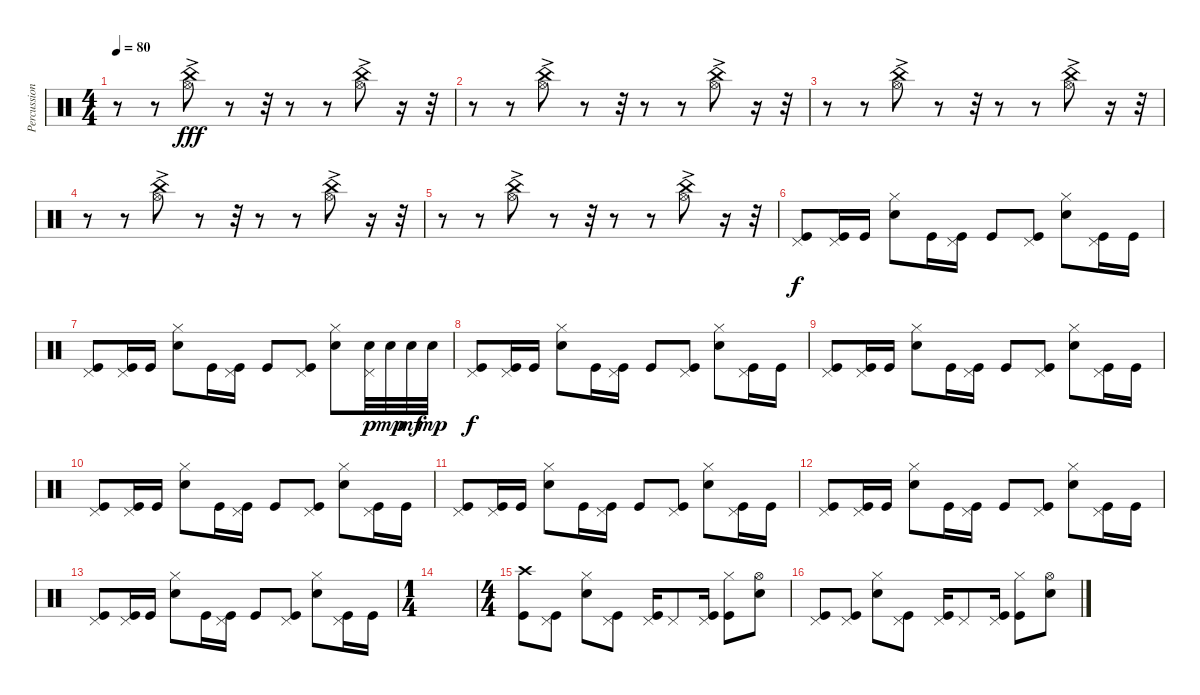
\track ("Percussions" "Percussion") {instrument percussion}
\staff {score}
\articulation defaults
\ts (4 4)
\tempo 80
\clef neutral
\ks c
r.8{dy fff} r.8 ("Hi-Hat (open)"{ac} "China (hit)"{ac}).8 r.8 r.32 r.8 r.8 ("Hi-Hat (open)"{ac} "China (hit)").8 r.16 r.32 |
r.8 r.8 ("Hi-Hat (open)"{ac} "China (hit)"{ac}).8 r.8 r.32 r.8 r.8 ("Hi-Hat (open)"{ac} "China (hit)").8 r.16 r.32 |
r.8 r.8 ("Hi-Hat (open)"{ac} "China (hit)"{ac}).8 r.8 r.32 r.8 r.8 ("Hi-Hat (open)"{ac} "China (hit)").8 r.16 r.32 |
r.8 r.8 ("Hi-Hat (open)"{ac} "China (hit)"{ac}).8 r.8 r.32 r.8 r.8 ("Hi-Hat (open)"{ac} "China (hit)").8 r.16 r.32 |
r.8 r.8 ("Hi-Hat (open)"{ac} "China (hit)"{ac}).8 r.8 r.32 r.8 r.8 ("Hi-Hat (open)"{ac} "China (hit)").8 r.16 r.32 |
("Pedal Hi-Hat (hit)" "Kick (hit)").8{dy f volume 16} ("Pedal Hi-Hat (hit)" "Kick (hit)").16 "Kick (hit)".16 ("Hi-Hat (closed)" "Electric Snare (hit)").8 "Kick (hit)".16 ("Pedal Hi-Hat (hit)" "Kick (hit)").16 "Kick (hit)".8 ("Pedal Hi-Hat (hit)" "Kick (hit)").8 ("Hi-Hat (closed)" "Electric Snare (hit)").8 ("Pedal Hi-Hat (hit)" "Kick (hit)").16 "Kick (hit)".16 |
("Pedal Hi-Hat (hit)" "Kick (hit)").8{volume 16} ("Pedal Hi-Hat (hit)" "Kick (hit)").16 "Kick (hit)".16 ("Hi-Hat (closed)" "Electric Snare (hit)").8 "Kick (hit)".16 ("Pedal Hi-Hat (hit)" "Kick (hit)").16 "Kick (hit)".8 ("Pedal Hi-Hat (hit)" "Kick (hit)").8 ("Hi-Hat (closed)" "Electric Snare (hit)").8 ("Pedal Hi-Hat (hit)" "Electric Snare (hit)").32{dy p} "Electric Snare (hit)".32{dy mp} "Electric Snare (hit)".32{dy mf} "Electric Snare (hit)".32{dy mp} |
("Pedal Hi-Hat (hit)" "Kick (hit)").8{dy f volume 16} ("Pedal Hi-Hat (hit)" "Kick (hit)").16 "Kick (hit)".16 ("Hi-Hat (closed)" "Electric Snare (hit)").8 "Kick (hit)".16 ("Pedal Hi-Hat (hit)" "Kick (hit)").16 "Kick (hit)".8 ("Pedal Hi-Hat (hit)" "Kick (hit)").8 ("Hi-Hat (closed)" "Electric Snare (hit)").8 ("Pedal Hi-Hat (hit)" "Kick (hit)").16 "Kick (hit)".16 |
("Pedal Hi-Hat (hit)" "Kick (hit)").8{volume 16} ("Pedal Hi-Hat (hit)" "Kick (hit)").16 "Kick (hit)".16 ("Hi-Hat (closed)" "Electric Snare (hit)").8 "Kick (hit)".16 ("Pedal Hi-Hat (hit)" "Kick (hit)").16 "Kick (hit)".8 ("Pedal Hi-Hat (hit)" "Kick (hit)").8 ("Hi-Hat (closed)" "Electric Snare (hit)").8 ("Pedal Hi-Hat (hit)" "Kick (hit)").16 "Kick (hit)".16 |
("Pedal Hi-Hat (hit)" "Kick (hit)").8{volume 16} ("Pedal Hi-Hat (hit)" "Kick (hit)").16 "Kick (hit)".16 ("Hi-Hat (closed)" "Electric Snare (hit)").8 "Kick (hit)".16 ("Pedal Hi-Hat (hit)" "Kick (hit)").16 "Kick (hit)".8 ("Pedal Hi-Hat (hit)" "Kick (hit)").8 ("Hi-Hat (closed)" "Electric Snare (hit)").8 ("Pedal Hi-Hat (hit)" "Kick (hit)").16 "Kick (hit)".16 |
("Pedal Hi-Hat (hit)" "Kick (hit)").8{volume 16} ("Pedal Hi-Hat (hit)" "Kick (hit)").16 "Kick (hit)".16 ("Hi-Hat (closed)" "Electric Snare (hit)").8 "Kick (hit)".16 ("Pedal Hi-Hat (hit)" "Kick (hit)").16 "Kick (hit)".8 ("Pedal Hi-Hat (hit)" "Kick (hit)").8 ("Hi-Hat (closed)" "Electric Snare (hit)").8 ("Pedal Hi-Hat (hit)" "Kick (hit)").16 "Kick (hit)".16 |
("Pedal Hi-Hat (hit)" "Kick (hit)").8{volume 16} ("Pedal Hi-Hat (hit)" "Kick (hit)").16 "Kick (hit)".16 ("Hi-Hat (closed)" "Electric Snare (hit)").8 "Kick (hit)".16 ("Pedal Hi-Hat (hit)" "Kick (hit)").16 "Kick (hit)".8 ("Pedal Hi-Hat (hit)" "Kick (hit)").8 ("Hi-Hat (closed)" "Electric Snare (hit)").8 ("Pedal Hi-Hat (hit)" "Kick (hit)").16 "Kick (hit)".16 |
("Pedal Hi-Hat (hit)" "Kick (hit)").8{volume 16} ("Pedal Hi-Hat (hit)" "Kick (hit)").16 "Kick (hit)".16 ("Hi-Hat (closed)" "Electric Snare (hit)").8 "Kick (hit)".16 ("Pedal Hi-Hat (hit)" "Kick (hit)").16 "Kick (hit)".8 ("Pedal Hi-Hat (hit)" "Kick (hit)").8 ("Hi-Hat (closed)" "Electric Snare (hit)").8 ("Pedal Hi-Hat (hit)" "Kick (hit)").16 "Kick (hit)".16 |
\ts (1 4)
|
\ts (4 4)
("Crash high (hit)" "Kick (hit)").8{volume 16} ("Pedal Hi-Hat (hit)" "Kick (hit)").8 ("Hi-Hat (closed)" "Electric Snare (hit)").8 ("Pedal Hi-Hat (hit)" "Kick (hit)").8 ("Pedal Hi-Hat (hit)" "Kick (hit)").16 "Pedal Hi-Hat (hit)".8 ("Pedal Hi-Hat (hit)" "Kick (hit)").16 ("Hi-Hat (closed)" "Kick (hit)").8 ("Hi-Hat (open)" "Electric Snare (hit)").8 |
("Pedal Hi-Hat (hit)" "Kick (hit)").8 ("Pedal Hi-Hat (hit)" "Kick (hit)").8 ("Hi-Hat (closed)" "Electric Snare (hit)").8 ("Pedal Hi-Hat (hit)" "Kick (hit)").8 ("Pedal Hi-Hat (hit)" "Kick (hit)").16 "Pedal Hi-Hat (hit)".8 ("Pedal Hi-Hat (hit)" "Kick (hit)").16 ("Hi-Hat (closed)" "Kick (hit)").8 ("Hi-Hat (open)" "Electric Snare (hit)").8
